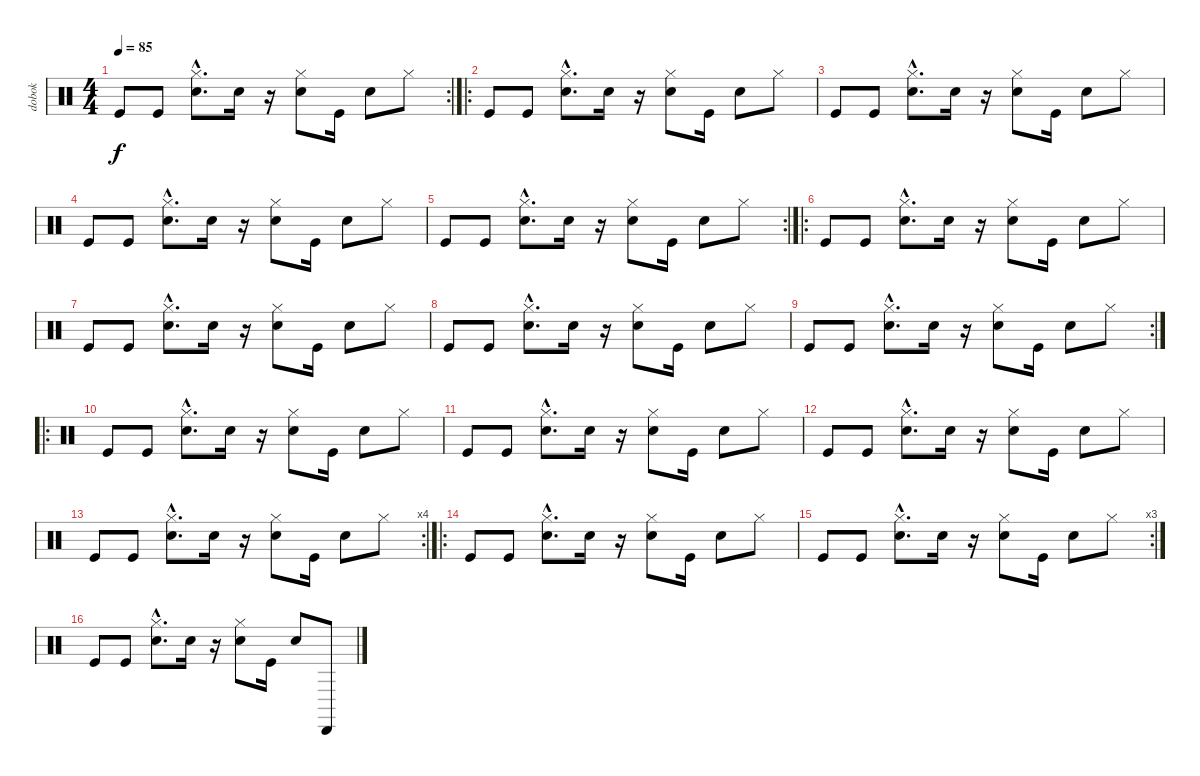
\track ("dobok" "dobok") {instrument percussion}
\staff {score}
\articulation defaults
\rc 2
\ts (4 4)
\tempo 85
\clef neutral
\ks c "Kick (hit)".8{dy f} "Kick (hit)".8
("Hi-Hat (closed)"{hac} "Electric Snare (hit)"{hac}).8{d} "Electric Snare (hit)".16 r.16 ("Hi-Hat (closed)" "Electric Snare (hit)").8 "Kick (hit)".16 "Electric Snare (hit)".8 "Hi-Hat (closed)".8 |
\ro "Kick (hit)".8 "Kick (hit)".8
("Hi-Hat (closed)"{hac} "Electric Snare (hit)"{hac}).8{d} "Electric Snare (hit)".16 r.16 ("Hi-Hat (closed)" "Electric Snare (hit)").8 "Kick (hit)".16 "Electric Snare (hit)".8 "Hi-Hat (closed)".8 |
"Kick (hit)".8 "Kick (hit)".8 ("Hi-Hat (closed)"{hac} "Electric Snare (hit)"{hac}).8{d} "Electric Snare (hit)".16 r.16 ("Hi-Hat (closed)" "Electric Snare (hit)").8 "Kick (hit)".16 "Electric Snare (hit)".8 "Hi-Hat (closed)".8 |
"Kick (hit)".8 "Kick (hit)".8 ("Hi-Hat (closed)"{hac} "Electric Snare (hit)"{hac}).8{d} "Electric Snare (hit)".16 r.16 ("Hi-Hat (closed)" "Electric Snare (hit)").8 "Kick (hit)".16 "Electric Snare (hit)".8 "Hi-Hat (closed)".8 |
\rc 2 "Kick (hit)".8 "Kick (hit)".8
("Hi-Hat (closed)"{hac} "Electric Snare (hit)"{hac}).8{d} "Electric Snare (hit)".16 r.16 ("Hi-Hat (closed)" "Electric Snare (hit)").8 "Kick (hit)".16 "Electric Snare (hit)".8 "Hi-Hat (closed)".8 |
\ro "Kick (hit)".8 "Kick (hit)".8
("Hi-Hat (closed)"{hac} "Electric Snare (hit)"{hac}).8{d} "Electric Snare (hit)".16 r.16 ("Hi-Hat (closed)" "Electric Snare (hit)").8 "Kick (hit)".16 "Electric Snare (hit)".8 "Hi-Hat (closed)".8 |
"Kick (hit)".8 "Kick (hit)".8 ("Hi-Hat (closed)"{hac} "Electric Snare (hit)"{hac}).8{d} "Electric Snare (hit)".16 r.16 ("Hi-Hat (closed)" "Electric Snare (hit)").8 "Kick (hit)".16 "Electric Snare (hit)".8 "Hi-Hat (closed)".8 |
"Kick (hit)".8 "Kick (hit)".8 ("Hi-Hat (closed)"{hac} "Electric Snare (hit)"{hac}).8{d} "Electric Snare (hit)".16 r.16 ("Hi-Hat (closed)" "Electric Snare (hit)").8 "Kick (hit)".16 "Electric Snare (hit)".8 "Hi-Hat (closed)".8 |
\rc 2 "Kick (hit)".8 "Kick (hit)".8
("Hi-Hat (closed)"{hac} "Electric Snare (hit)"{hac}).8{d} "Electric Snare (hit)".16 r.16 ("Hi-Hat (closed)" "Electric Snare (hit)").8 "Kick (hit)".16 "Electric Snare (hit)".8 "Hi-Hat (closed)".8 |
\ro "Kick (hit)".8 "Kick (hit)".8
("Hi-Hat (closed)"{hac} "Electric Snare (hit)"{hac}).8{d} "Electric Snare (hit)".16 r.16 ("Hi-Hat (closed)" "Electric Snare (hit)").8 "Kick (hit)".16 "Electric Snare (hit)".8 "Hi-Hat (closed)".8 |
"Kick (hit)".8 "Kick (hit)".8 ("Hi-Hat (closed)"{hac} "Electric Snare (hit)"{hac}).8{d} "Electric Snare (hit)".16 r.16 ("Hi-Hat (closed)" "Electric Snare (hit)").8 "Kick (hit)".16 "Electric Snare (hit)".8 "Hi-Hat (closed)".8 |
"Kick (hit)".8 "Kick (hit)".8 ("Hi-Hat (closed)"{hac} "Electric Snare (hit)"{hac}).8{d} "Electric Snare (hit)".16 r.16 ("Hi-Hat (closed)" "Electric Snare (hit)").8 "Kick (hit)".16 "Electric Snare (hit)".8 "Hi-Hat (closed)".8 |
\rc 4 "Kick (hit)".8 "Kick (hit)".8
("Hi-Hat (closed)"{hac} "Electric Snare (hit)"{hac}).8{d} "Electric Snare (hit)".16 r.16 ("Hi-Hat (closed)" "Electric Snare (hit)").8 "Kick (hit)".16 "Electric Snare (hit)".8 "Hi-Hat (closed)".8 |
\ro "Kick (hit)".8 "Kick (hit)".8
("Hi-Hat (closed)"{hac} "Electric Snare (hit)"{hac}).8{d} "Electric Snare (hit)".16 r.16 ("Hi-Hat (closed)" "Electric Snare (hit)").8 "Kick (hit)".16 "Electric Snare (hit)".8 "Hi-Hat (closed)".8 |
\rc 3 "Kick (hit)".8 "Kick (hit)".8
("Hi-Hat (closed)"{hac} "Electric Snare (hit)"{hac}).8{d} "Electric Snare (hit)".16 r.16 ("Hi-Hat (closed)" "Electric Snare (hit)").8 "Kick (hit)".16 "Electric Snare (hit)".8 "Hi-Hat (closed)".8 |
"Kick (hit)".8 "Kick (hit)".8 ("Hi-Hat (closed)"{hac} "Electric Snare (hit)"{hac}).8{d} "Electric Snare (hit)".16 r.16 ("Hi-Hat (closed)" "Electric Snare (hit)").8 "Kick (hit)".16 "Electric Snare (hit)".8 "Cabasa (hit)".8
